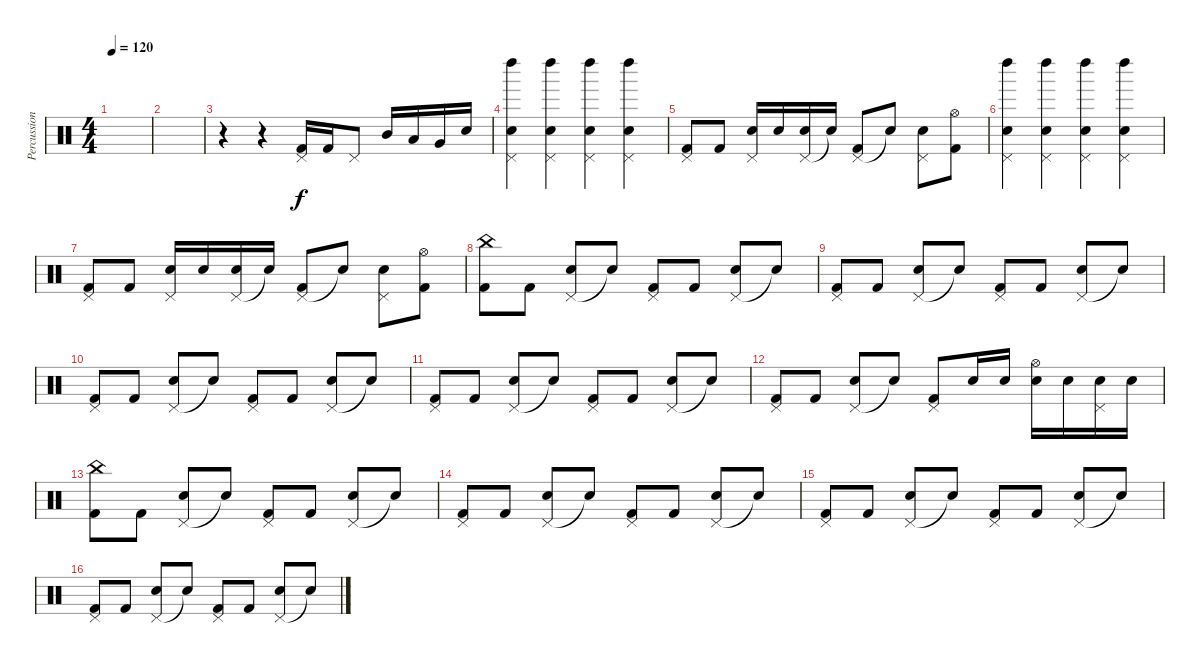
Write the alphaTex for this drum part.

\track ("Percussions" "Percussion") {instrument percussion}
\staff {score}
\articulation defaults
\ts (4 4)
\tempo 120
\clef neutral
\ks c
|
|
r.4 r.4 ("Pedal Hi-Hat (hit)" "Kick (hit) 2").16 "Kick (hit) 2".16 "Pedal Hi-Hat (hit)".8 "Mid Tom (hit)".16 "Low Tom (hit)".16 "Very Low Tom (hit)".16 "Snare (hit) 2".16 |
("Pedal Hi-Hat (hit)" "Snare (hit) 2" "Left Maraca (hit)").4 ("Pedal Hi-Hat (hit)" "Snare (hit) 2" "Left Maraca (hit)").4 ("Pedal Hi-Hat (hit)" "Snare (hit) 2" "Left Maraca (hit)").4 ("Pedal Hi-Hat (hit)" "Snare (hit) 2" "Left Maraca (hit)").4 |
("Pedal Hi-Hat (hit)" "Kick (hit) 2").8 "Kick (hit) 2".8 ("Pedal Hi-Hat (hit)" "Snare (hit) 2").16 "Snare (hit) 2".16 ("Pedal Hi-Hat (hit)" "Snare (hit) 2").16 "Snare (hit)"{t}.16 ("Pedal Hi-Hat (hit)" "Kick (hit) 2").8 "Snare (hit)"{t}.8 ("Pedal Hi-Hat (hit)" "Snare (hit) 2").8 ("Hi-Hat (open)" "Kick (hit) 2").8 |
("Pedal Hi-Hat (hit)" "Snare (hit) 2" "Left Maraca (hit)").4 ("Pedal Hi-Hat (hit)" "Snare (hit) 2" "Left Maraca (hit)").4 ("Pedal Hi-Hat (hit)" "Snare (hit) 2" "Left Maraca (hit)").4 ("Pedal Hi-Hat (hit)" "Snare (hit) 2" "Left Maraca (hit)").4 |
("Pedal Hi-Hat (hit)" "Kick (hit) 2").8 "Kick (hit) 2".8 ("Pedal Hi-Hat (hit)" "Snare (hit) 2").16 "Snare (hit) 2".16 ("Pedal Hi-Hat (hit)" "Snare (hit) 2").16 "Snare (hit)"{t}.16 ("Pedal Hi-Hat (hit)" "Kick (hit) 2").8 "Snare (hit)"{t}.8 ("Pedal Hi-Hat (hit)" "Snare (hit) 2").8 ("Hi-Hat (open)" "Kick (hit) 2").8 |
("China (hit)" "Kick (hit) 2").8 "Kick (hit) 2".8 ("Pedal Hi-Hat (hit)" "Snare (hit) 2").8 "Snare (hit)"{t}.8 ("Pedal Hi-Hat (hit)" "Kick (hit) 2").8 "Kick (hit) 2".8 ("Pedal Hi-Hat (hit)" "Snare (hit) 2").8 "Snare (hit)"{t}.8 |
("Pedal Hi-Hat (hit)" "Kick (hit) 2").8 "Kick (hit) 2".8 ("Pedal Hi-Hat (hit)" "Snare (hit) 2").8 "Snare (hit)"{t}.8 ("Pedal Hi-Hat (hit)" "Kick (hit) 2").8 "Kick (hit) 2".8 ("Pedal Hi-Hat (hit)" "Snare (hit) 2").8 "Snare (hit)"{t}.8 |
("Pedal Hi-Hat (hit)" "Kick (hit) 2").8 "Kick (hit) 2".8 ("Pedal Hi-Hat (hit)" "Snare (hit) 2").8 "Snare (hit)"{t}.8 ("Pedal Hi-Hat (hit)" "Kick (hit) 2").8 "Kick (hit) 2".8 ("Pedal Hi-Hat (hit)" "Snare (hit) 2").8 "Snare (hit)"{t}.8 |
("Pedal Hi-Hat (hit)" "Kick (hit) 2").8 "Kick (hit) 2".8 ("Pedal Hi-Hat (hit)" "Snare (hit) 2").8 "Snare (hit)"{t}.8 ("Pedal Hi-Hat (hit)" "Kick (hit) 2").8 "Kick (hit) 2".8 ("Pedal Hi-Hat (hit)" "Snare (hit) 2").8 "Snare (hit)"{t}.8 |
("Pedal Hi-Hat (hit)" "Kick (hit) 2").8 "Kick (hit) 2".8 ("Pedal Hi-Hat (hit)" "Snare (hit) 2").8 "Snare (hit)"{t}.8 ("Pedal Hi-Hat (hit)" "Kick (hit) 2").8 "Snare (hit) 2".16 "Snare (hit) 2".16 ("Hi-Hat (open)" "Snare (hit) 2").16 "Snare (hit) 2".16 ("Pedal Hi-Hat (hit)" "Snare (hit) 2").16 "Snare (hit) 2".16 |
("China (hit)" "Kick (hit) 2").8 "Kick (hit) 2".8 ("Pedal Hi-Hat (hit)" "Snare (hit) 2").8 "Snare (hit)"{t}.8 ("Pedal Hi-Hat (hit)" "Kick (hit) 2").8 "Kick (hit) 2".8 ("Pedal Hi-Hat (hit)" "Snare (hit) 2").8 "Snare (hit)"{t}.8 |
("Pedal Hi-Hat (hit)" "Kick (hit) 2").8 "Kick (hit) 2".8 ("Pedal Hi-Hat (hit)" "Snare (hit) 2").8 "Snare (hit)"{t}.8 ("Pedal Hi-Hat (hit)" "Kick (hit) 2").8 "Kick (hit) 2".8 ("Pedal Hi-Hat (hit)" "Snare (hit) 2").8 "Snare (hit)"{t}.8 |
("Pedal Hi-Hat (hit)" "Kick (hit) 2").8 "Kick (hit) 2".8 ("Pedal Hi-Hat (hit)" "Snare (hit) 2").8 "Snare (hit)"{t}.8 ("Pedal Hi-Hat (hit)" "Kick (hit) 2").8 "Kick (hit) 2".8 ("Pedal Hi-Hat (hit)" "Snare (hit) 2").8 "Snare (hit)"{t}.8 |
("Pedal Hi-Hat (hit)" "Kick (hit) 2").8 "Kick (hit) 2".8 ("Pedal Hi-Hat (hit)" "Snare (hit) 2").8 "Snare (hit)"{t}.8 ("Pedal Hi-Hat (hit)" "Kick (hit) 2").8 "Kick (hit) 2".8 ("Pedal Hi-Hat (hit)" "Snare (hit) 2").8 "Snare (hit)"{t}.8
